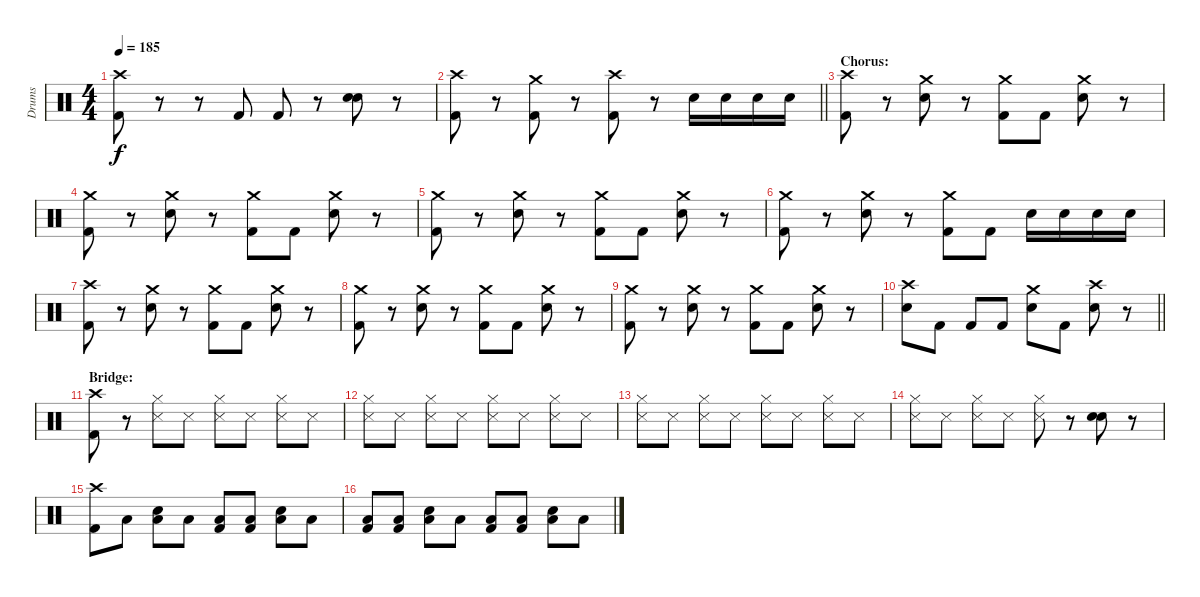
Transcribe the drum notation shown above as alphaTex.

\track ("Drums" "Drums") {instrument percussion}
\staff {score}
\articulation defaults
\ts (4 4)
\tempo 185
\clef neutral
\ks c
("Crash high (hit)" "Kick (hit) 2").8{dy f} r.8 r.8 "Kick (hit) 2".8 "Kick (hit) 2".8 r.8 ("Snare (hit) 2" "Snare (hit) 2").8 r.8 |
\barLineRight lightlight
("Crash high (hit)" "Kick (hit) 2").8 r.8 ("Crash medium (hit)" "Kick (hit) 2").8 r.8 ("Crash high (hit)" "Kick (hit) 2").8 r.8 "Snare (hit) 2".16 "Snare (hit) 2".16 "Snare (hit) 2".16 "Snare (hit) 2".16 |
\section ("" "Chorus:")
("Crash high (hit)" "Kick (hit) 2").8 r.8 ("Crash medium (hit)" "Snare (hit) 2").8 r.8 ("Crash medium (hit)" "Kick (hit) 2").8 "Kick (hit) 2".8 ("Crash medium (hit)" "Snare (hit) 2").8 r.8 |
("Crash medium (hit)" "Kick (hit) 2").8 r.8 ("Crash medium (hit)" "Snare (hit) 2").8 r.8 ("Crash medium (hit)" "Kick (hit) 2").8 "Kick (hit) 2".8 ("Crash medium (hit)" "Snare (hit) 2").8 r.8 |
("Crash medium (hit)" "Kick (hit) 2").8 r.8 ("Crash medium (hit)" "Snare (hit) 2").8 r.8 ("Crash medium (hit)" "Kick (hit) 2").8 "Kick (hit) 2".8 ("Crash medium (hit)" "Snare (hit) 2").8 r.8 |
("Crash medium (hit)" "Kick (hit) 2").8 r.8 ("Crash medium (hit)" "Snare (hit) 2").8 r.8 ("Crash medium (hit)" "Kick (hit) 2").8 "Kick (hit) 2".8 "Snare (hit) 2".16 "Snare (hit) 2".16 "Snare (hit) 2".16 "Snare (hit) 2".16 |
("Crash high (hit)" "Kick (hit) 2").8 r.8 ("Crash medium (hit)" "Snare (hit) 2").8 r.8 ("Crash medium (hit)" "Kick (hit) 2").8 "Kick (hit) 2".8 ("Crash medium (hit)" "Snare (hit) 2").8 r.8 |
("Crash medium (hit)" "Kick (hit) 2").8 r.8 ("Crash medium (hit)" "Snare (hit) 2").8 r.8 ("Crash medium (hit)" "Kick (hit) 2").8 "Kick (hit) 2".8 ("Crash medium (hit)" "Snare (hit) 2").8 r.8 |
("Crash medium (hit)" "Kick (hit) 2").8 r.8 ("Crash medium (hit)" "Snare (hit) 2").8 r.8 ("Crash medium (hit)" "Kick (hit) 2").8 "Kick (hit) 2".8 ("Crash medium (hit)" "Snare (hit) 2").8 r.8 |
\barLineRight lightlight
("Crash high (hit)" "Snare (hit) 2").8 "Kick (hit) 2".8 "Kick (hit) 2".8 "Kick (hit) 2".8 ("Crash medium (hit)" "Snare (hit) 2").8 "Kick (hit) 2".8 ("Crash high (hit)" "Snare (hit) 2").8 r.8 |
\section ("" "Bridge:")
("Crash high (hit)" "Kick (hit) 2").8 r.8 ("Hi-Hat (closed)" "Snare (side stick) 3").8 "Snare (side stick) 3".8 ("Hi-Hat (closed)" "Snare (side stick) 3").8 "Snare (side stick) 3".8 ("Hi-Hat (closed)" "Snare (side stick) 3").8 "Snare (side stick) 3".8 |
("Hi-Hat (closed)" "Snare (side stick) 3").8 "Snare (side stick) 3".8 ("Hi-Hat (closed)" "Snare (side stick) 3").8 "Snare (side stick) 3".8 ("Hi-Hat (closed)" "Snare (side stick) 3").8 "Snare (side stick) 3".8 ("Hi-Hat (closed)" "Snare (side stick) 3").8 "Snare (side stick) 3".8 |
("Hi-Hat (closed)" "Snare (side stick) 3").8 "Snare (side stick) 3".8 ("Hi-Hat (closed)" "Snare (side stick) 3").8 "Snare (side stick) 3".8 ("Hi-Hat (closed)" "Snare (side stick) 3").8 "Snare (side stick) 3".8 ("Hi-Hat (closed)" "Snare (side stick) 3").8 "Snare (side stick) 3".8 |
("Hi-Hat (closed)" "Snare (side stick) 3").8 "Snare (side stick) 3".8 ("Hi-Hat (closed)" "Snare (side stick) 3").8 "Snare (side stick) 3".8 ("Hi-Hat (closed)" "Snare (side stick) 3").8 r.8 ("Snare (hit) 2" "Snare (hit) 2").8 r.8 |
("Crash high (hit)" "Kick (hit) 2").8 "Low Tom (hit)".8 ("Low Tom (hit)" "Snare (hit) 2").8 "Low Tom (hit)".8 ("Low Tom (hit)" "Kick (hit) 2").8 ("Low Tom (hit)" "Kick (hit) 2").8 ("Low Tom (hit)" "Snare (hit) 2").8 "Low Tom (hit)".8 |
("Low Tom (hit)" "Kick (hit) 2").8 ("Low Tom (hit)" "Kick (hit) 2").8 ("Low Tom (hit)" "Snare (hit) 2").8 "Low Tom (hit)".8 ("Low Tom (hit)" "Kick (hit) 2").8 ("Low Tom (hit)" "Kick (hit) 2").8 ("Low Tom (hit)" "Snare (hit) 2").8 "Low Tom (hit)".8
